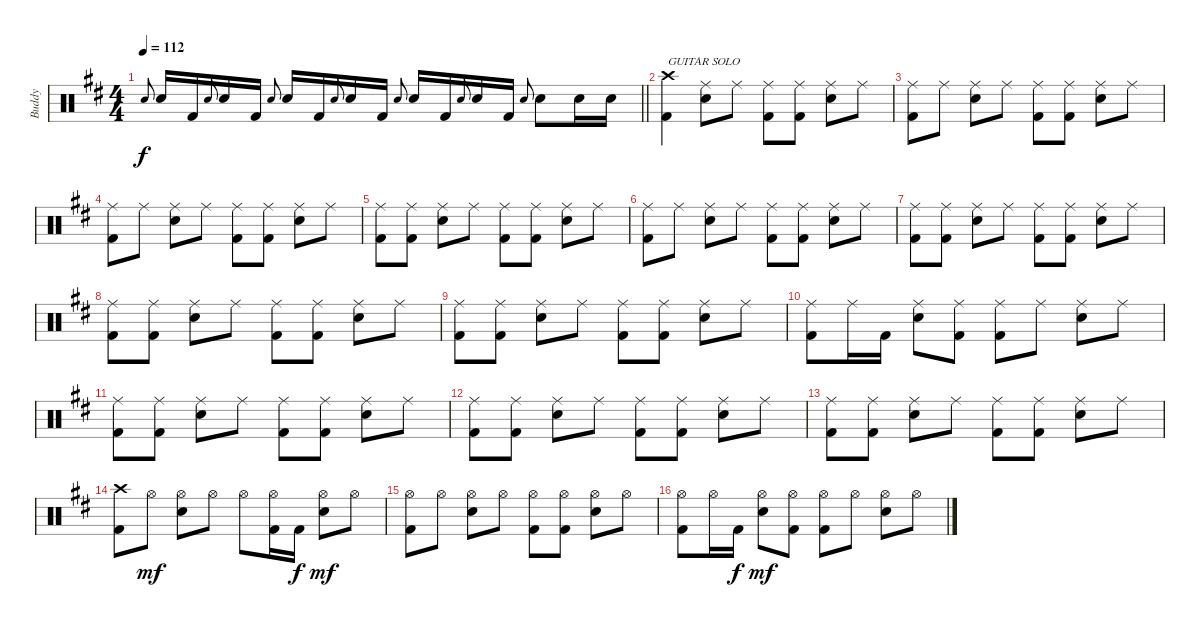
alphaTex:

\track ("Buddy " "Buddy ") {instrument percussion}
\staff {score}
\articulation defaults
\ts (4 4)
\tempo 112
\clef neutral
\barLineRight lightlight
\ks d "Snare (hit) 2".8{gr onbeat dy f} "Snare (hit) 2".16 "Kick (hit) 2".16 "Snare (hit) 2".8{gr onbeat} "Snare (hit) 2".16 "Kick (hit) 2".16 "Snare (hit) 2".8{gr onbeat} "Snare (hit) 2".16 "Kick (hit) 2".16 "Snare (hit) 2".8{gr onbeat} "Snare (hit) 2".16 "Kick (hit) 2".16 "Snare (hit) 2".8{gr onbeat} "Snare (hit) 2".16 "Kick (hit) 2".16 "Snare (hit) 2".8{gr onbeat} "Snare (hit) 2".16 "Kick (hit) 2".16 "Snare (hit) 2".8{gr onbeat} "Snare (hit) 2".8 "Snare (hit) 2".16 "Snare (hit) 2".16
|
("Crash high (hit)" "Kick (hit) 2").4{txt "GUITAR SOLO"} ("Ride (middle)" "Snare (hit) 2").8 "Ride (middle)".8 ("Ride (middle)" "Kick (hit) 2").8 ("Ride (middle)" "Kick (hit) 2").8 ("Ride (middle)" "Snare (hit) 2").8 "Ride (middle)".8 |
("Ride (middle)" "Kick (hit) 2").8 "Ride (middle)".8 ("Ride (middle)" "Snare (hit) 2").8 "Ride (middle)".8 ("Ride (middle)" "Kick (hit) 2").8 ("Ride (middle)" "Kick (hit) 2").8 ("Ride (middle)" "Snare (hit) 2").8 "Ride (middle)".8 |
("Ride (middle)" "Kick (hit) 2").8 "Ride (middle)".8 ("Ride (middle)" "Snare (hit) 2").8 "Ride (middle)".8 ("Ride (middle)" "Kick (hit) 2").8 ("Ride (middle)" "Kick (hit) 2").8 ("Ride (middle)" "Snare (hit) 2").8 "Ride (middle)".8 |
("Ride (middle)" "Kick (hit) 2").8 ("Ride (middle)" "Kick (hit) 2").8 ("Ride (middle)" "Snare (hit) 2").8 "Ride (middle)".8 ("Ride (middle)" "Kick (hit) 2").8 ("Ride (middle)" "Kick (hit) 2").8 ("Ride (middle)" "Snare (hit) 2").8 "Ride (middle)".8 |
("Ride (middle)" "Kick (hit) 2").8 "Ride (middle)".8 ("Ride (middle)" "Snare (hit) 2").8 "Ride (middle)".8 ("Ride (middle)" "Kick (hit) 2").8 ("Ride (middle)" "Kick (hit) 2").8 ("Ride (middle)" "Snare (hit) 2").8 "Ride (middle)".8 |
("Ride (middle)" "Kick (hit) 2").8 ("Ride (middle)" "Kick (hit) 2").8 ("Ride (middle)" "Snare (hit) 2").8 "Ride (middle)".8 ("Ride (middle)" "Kick (hit) 2").8 ("Ride (middle)" "Kick (hit) 2").8 ("Ride (middle)" "Snare (hit) 2").8 "Ride (middle)".8 |
("Ride (middle)" "Kick (hit) 2").8 ("Ride (middle)" "Kick (hit) 2").8 ("Ride (middle)" "Snare (hit) 2").8 "Ride (middle)".8 ("Ride (middle)" "Kick (hit) 2").8 ("Ride (middle)" "Kick (hit) 2").8 ("Ride (middle)" "Snare (hit) 2").8 "Ride (middle)".8 |
("Ride (middle)" "Kick (hit) 2").8 ("Ride (middle)" "Kick (hit) 2").8 ("Ride (middle)" "Snare (hit) 2").8 "Ride (middle)".8 ("Ride (middle)" "Kick (hit) 2").8 ("Ride (middle)" "Kick (hit) 2").8 ("Ride (middle)" "Snare (hit) 2").8 "Ride (middle)".8 |
("Ride (middle)" "Kick (hit) 2").8 "Ride (middle)".16 "Kick (hit) 2".16 ("Ride (middle)" "Snare (hit) 2").8 ("Ride (middle)" "Kick (hit) 2").8 ("Ride (middle)" "Kick (hit) 2").8 "Ride (middle)".8 ("Ride (middle)" "Snare (hit) 2").8 "Ride (middle)".8 |
("Ride (middle)" "Kick (hit) 2").8 ("Ride (middle)" "Kick (hit) 2").8 ("Ride (middle)" "Snare (hit) 2").8 "Ride (middle)".8 ("Ride (middle)" "Kick (hit) 2").8 ("Ride (middle)" "Kick (hit) 2").8 ("Ride (middle)" "Snare (hit) 2").8 "Ride (middle)".8 |
("Ride (middle)" "Kick (hit) 2").8 ("Ride (middle)" "Kick (hit) 2").8 ("Ride (middle)" "Snare (hit) 2").8 "Ride (middle)".8 ("Ride (middle)" "Kick (hit) 2").8 ("Ride (middle)" "Kick (hit) 2").8 ("Ride (middle)" "Snare (hit) 2").8 "Ride (middle)".8 |
("Ride (middle)" "Kick (hit) 2").8 ("Ride (middle)" "Kick (hit) 2").8 ("Ride (middle)" "Snare (hit) 2").8 "Ride (middle)".8 ("Ride (middle)" "Kick (hit) 2").8 ("Ride (middle)" "Kick (hit) 2").8 ("Ride (middle)" "Snare (hit) 2").8 "Ride (middle)".8 |
("Crash high (hit)" "Kick (hit) 2").8 "Hi-Hat (open)".8{dy mf} ("Hi-Hat (open)" "Snare (hit) 2").8 "Hi-Hat (open)".8 "Hi-Hat (open)".8 ("Hi-Hat (open)" "Kick (hit) 2").16 "Kick (hit) 2".16{dy f} ("Hi-Hat (open)" "Snare (hit) 2").8{dy mf} "Hi-Hat (open)".8 |
("Hi-Hat (open)" "Kick (hit) 2").8 "Hi-Hat (open)".8 ("Hi-Hat (open)" "Snare (hit) 2").8 "Hi-Hat (open)".8 ("Hi-Hat (open)" "Kick (hit) 2").8 ("Hi-Hat (open)" "Kick (hit) 2").8 ("Hi-Hat (open)" "Snare (hit) 2").8 "Hi-Hat (open)".8 |
("Hi-Hat (open)" "Kick (hit) 2").8 "Hi-Hat (open)".16 "Kick (hit) 2".16{dy f} ("Hi-Hat (open)" "Snare (hit) 2").8{dy mf} ("Hi-Hat (open)" "Kick (hit) 2").8 ("Hi-Hat (open)" "Kick (hit) 2").8 "Hi-Hat (open)".8 ("Hi-Hat (open)" "Snare (hit) 2").8 "Hi-Hat (open)".8
